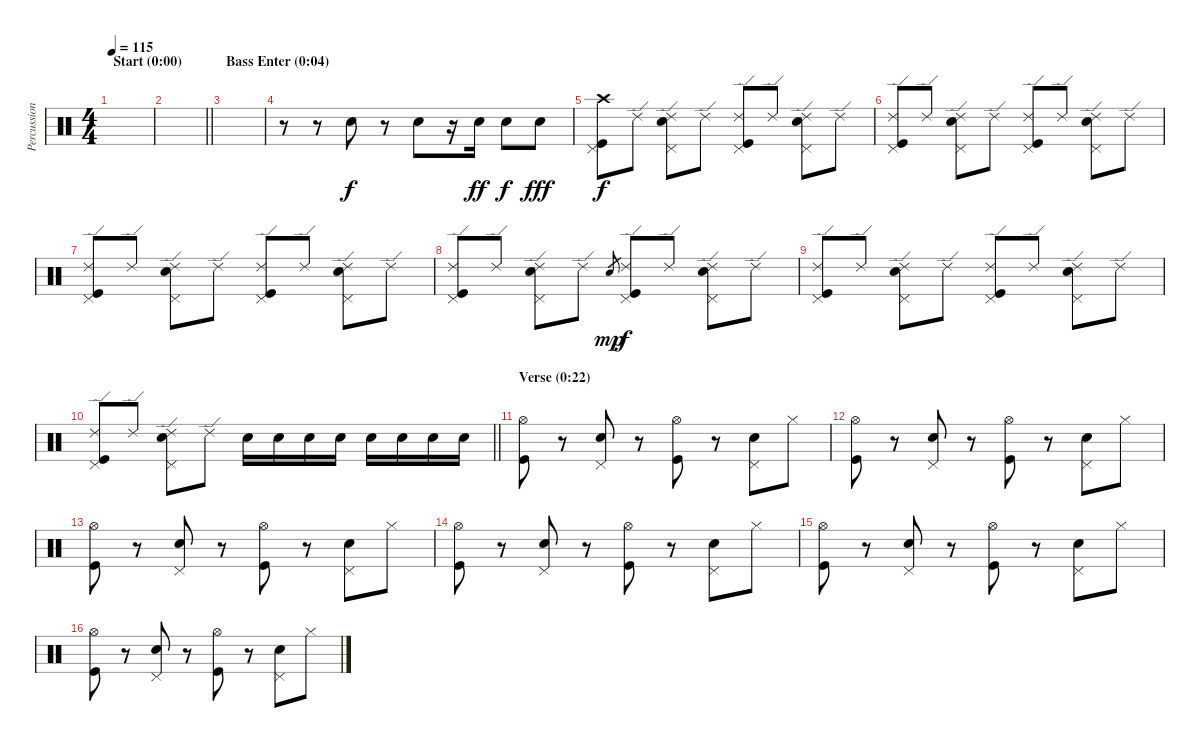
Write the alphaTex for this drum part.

\track ("Percussioni" "Percussion") {instrument percussion}
\staff {score}
\articulation defaults
\ts (4 4)
\section ("" "Start (0:00)")
\tempo 115
\clef neutral
\ks c
|
\barLineRight lightlight
|
\section ("" "Bass Enter (0:04)")
|
r.8 r.8 "Electric Snare (hit)".8 r.8 "Electric Snare (hit)".8 r.16 "Electric Snare (hit)".16{dy ff} "Electric Snare (hit)".8{dy f} "Electric Snare (hit)".8{dy fff} |
("Crash high (hit)" "Pedal Hi-Hat (hit)" "Kick (hit)").8{dy f} "Ride (edge) 2".8 ("Ride (edge) 2" "Pedal Hi-Hat (hit)" "Electric Snare (hit)").8 "Ride (edge) 2".8 ("Ride (edge) 2" "Pedal Hi-Hat (hit)" "Kick (hit)").8 "Ride (edge) 2".8 ("Ride (edge) 2" "Pedal Hi-Hat (hit)" "Electric Snare (hit)").8 "Ride (edge) 2".8 |
("Ride (edge) 2" "Pedal Hi-Hat (hit)" "Kick (hit)").8 "Ride (edge) 2".8 ("Ride (edge) 2" "Pedal Hi-Hat (hit)" "Electric Snare (hit)").8 "Ride (edge) 2".8 ("Ride (edge) 2" "Pedal Hi-Hat (hit)" "Kick (hit)").8 "Ride (edge) 2".8 ("Ride (edge) 2" "Pedal Hi-Hat (hit)" "Electric Snare (hit)").8 "Ride (edge) 2".8 |
("Ride (edge) 2" "Pedal Hi-Hat (hit)" "Kick (hit)").8 "Ride (edge) 2".8 ("Ride (edge) 2" "Pedal Hi-Hat (hit)" "Electric Snare (hit)").8 "Ride (edge) 2".8 ("Ride (edge) 2" "Pedal Hi-Hat (hit)" "Kick (hit)").8 "Ride (edge) 2".8 ("Ride (edge) 2" "Pedal Hi-Hat (hit)" "Electric Snare (hit)").8 "Ride (edge) 2".8 |
("Ride (edge) 2" "Pedal Hi-Hat (hit)" "Kick (hit)").8 "Ride (edge) 2".8 ("Ride (edge) 2" "Pedal Hi-Hat (hit)" "Electric Snare (hit)").8 "Ride (edge) 2".8 "Electric Snare (hit)".8{gr dy mp} ("Ride (edge) 2" "Pedal Hi-Hat (hit)" "Kick (hit)").8{dy f} "Ride (edge) 2".8 ("Ride (edge) 2" "Pedal Hi-Hat (hit)" "Electric Snare (hit)").8 "Ride (edge) 2".8 |
("Ride (edge) 2" "Pedal Hi-Hat (hit)" "Kick (hit)").8 "Ride (edge) 2".8 ("Ride (edge) 2" "Pedal Hi-Hat (hit)" "Electric Snare (hit)").8 "Ride (edge) 2".8 ("Ride (edge) 2" "Pedal Hi-Hat (hit)" "Kick (hit)").8 "Ride (edge) 2".8 ("Ride (edge) 2" "Pedal Hi-Hat (hit)" "Electric Snare (hit)").8 "Ride (edge) 2".8 |
\barLineRight lightlight
("Ride (edge) 2" "Pedal Hi-Hat (hit)" "Kick (hit)").8 "Ride (edge) 2".8 ("Ride (edge) 2" "Pedal Hi-Hat (hit)" "Electric Snare (hit)").8 "Ride (edge) 2".8 "Electric Snare (hit)".16 "Electric Snare (hit)".16 "Electric Snare (hit)".16 "Electric Snare (hit)".16 "Electric Snare (hit)".16 "Electric Snare (hit)".16 "Electric Snare (hit)".16 "Electric Snare (hit)".16 |
\section ("" "Verse (0:22)")
("Hi-Hat (open)" "Kick (hit)").8 r.8 ("Pedal Hi-Hat (hit)" "Electric Snare (hit)").8 r.8 ("Hi-Hat (open)" "Kick (hit)").8 r.8 ("Pedal Hi-Hat (hit)" "Electric Snare (hit)").8 "Hi-Hat (closed)".8 |
("Hi-Hat (open)" "Kick (hit)").8 r.8 ("Pedal Hi-Hat (hit)" "Electric Snare (hit)").8 r.8 ("Hi-Hat (open)" "Kick (hit)").8 r.8 ("Pedal Hi-Hat (hit)" "Electric Snare (hit)").8 "Hi-Hat (closed)".8 |
("Hi-Hat (open)" "Kick (hit)").8 r.8 ("Pedal Hi-Hat (hit)" "Electric Snare (hit)").8 r.8 ("Hi-Hat (open)" "Kick (hit)").8 r.8 ("Pedal Hi-Hat (hit)" "Electric Snare (hit)").8 "Hi-Hat (closed)".8 |
("Hi-Hat (open)" "Kick (hit)").8 r.8 ("Pedal Hi-Hat (hit)" "Electric Snare (hit)").8 r.8 ("Hi-Hat (open)" "Kick (hit)").8 r.8 ("Pedal Hi-Hat (hit)" "Electric Snare (hit)").8 "Hi-Hat (closed)".8 |
("Hi-Hat (open)" "Kick (hit)").8 r.8 ("Pedal Hi-Hat (hit)" "Electric Snare (hit)").8 r.8 ("Hi-Hat (open)" "Kick (hit)").8 r.8 ("Pedal Hi-Hat (hit)" "Electric Snare (hit)").8 "Hi-Hat (closed)".8 |
("Hi-Hat (open)" "Kick (hit)").8 r.8 ("Pedal Hi-Hat (hit)" "Electric Snare (hit)").8 r.8 ("Hi-Hat (open)" "Kick (hit)").8 r.8 ("Pedal Hi-Hat (hit)" "Electric Snare (hit)").8 "Hi-Hat (closed)".8
